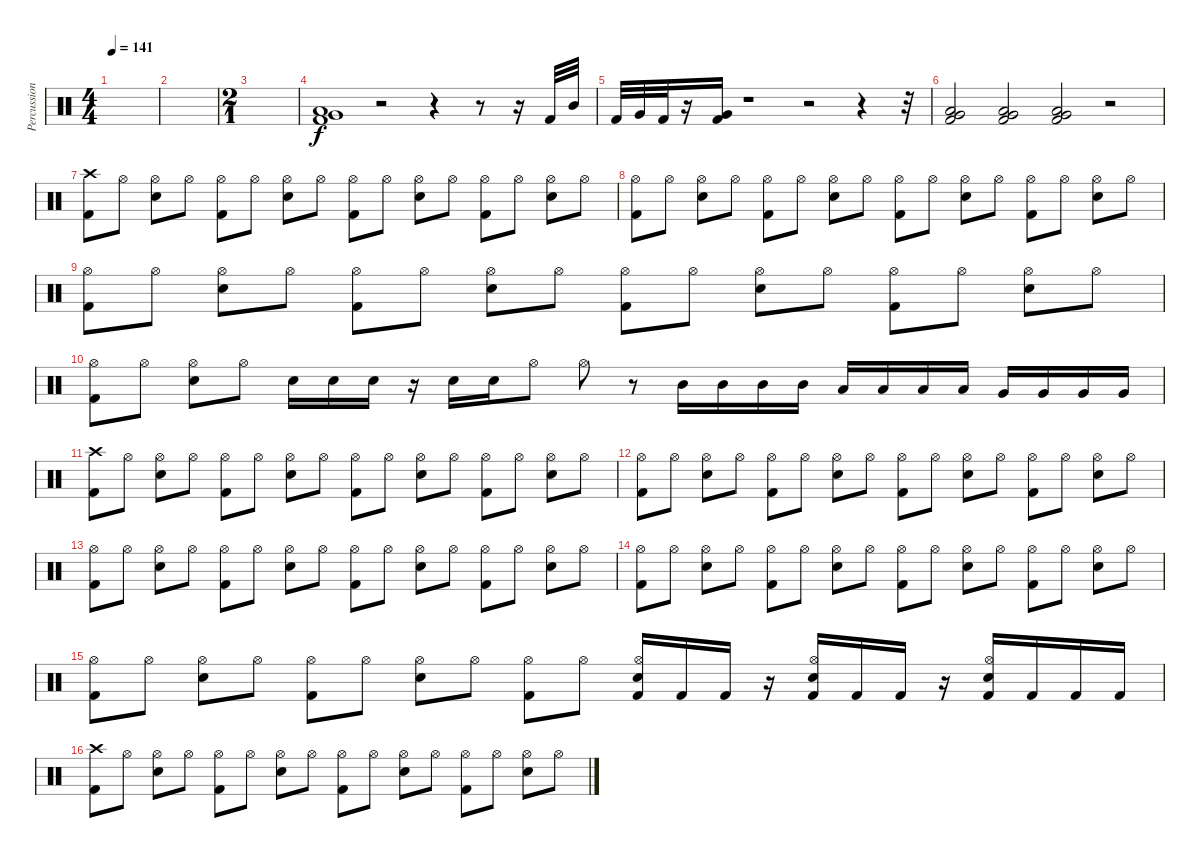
\track ("Percussion" "Percussion") {instrument percussion}
\staff {score}
\articulation defaults
\ts (4 4)
\tempo 141
\clef neutral
\ks c
|
|
\ts (2 1)
|
("Low Tom (hit)" "Very Low Tom (hit)" "Kick (hit) 2").1 r.2 r.4 r.8 r.16 "Kick (hit) 2".32 "Mid Tom (hit)".32 |
"Kick (hit) 2".32 "Very Low Tom (hit)".32 "Kick (hit) 2".32 r.16 ("Very Low Tom (hit)" "Kick (hit) 2").16 r.1 r.2 r.4 r.32 |
("Low Tom (hit)" "Very Low Tom (hit)" "Kick (hit) 2").2 ("Low Tom (hit)" "Very Low Tom (hit)" "Kick (hit) 2").2 ("Low Tom (hit)" "Very Low Tom (hit)" "Kick (hit) 2").2 r.2 |
("Crash high (hit)" "Kick (hit) 2").8 "Hi-Hat (open)".8 ("Hi-Hat (open)" "Snare (hit) 2").8 "Hi-Hat (open)".8 ("Hi-Hat (open)" "Kick (hit) 2").8 "Hi-Hat (open)".8 ("Hi-Hat (open)" "Snare (hit) 2").8 "Hi-Hat (open)".8 ("Hi-Hat (open)" "Kick (hit) 2").8 "Hi-Hat (open)".8 ("Hi-Hat (open)" "Snare (hit) 2").8 "Hi-Hat (open)".8 ("Hi-Hat (open)" "Kick (hit) 2").8 "Hi-Hat (open)".8 ("Hi-Hat (open)" "Snare (hit) 2").8 "Hi-Hat (open)".8 |
("Hi-Hat (open)" "Kick (hit) 2").8 "Hi-Hat (open)".8 ("Hi-Hat (open)" "Snare (hit) 2").8 "Hi-Hat (open)".8 ("Hi-Hat (open)" "Kick (hit) 2").8 "Hi-Hat (open)".8 ("Hi-Hat (open)" "Snare (hit) 2").8 "Hi-Hat (open)".8 ("Hi-Hat (open)" "Kick (hit) 2").8 "Hi-Hat (open)".8 ("Hi-Hat (open)" "Snare (hit) 2").8 "Hi-Hat (open)".8 ("Hi-Hat (open)" "Kick (hit) 2").8 "Hi-Hat (open)".8 ("Hi-Hat (open)" "Snare (hit) 2").8 "Hi-Hat (open)".8 |
("Hi-Hat (open)" "Kick (hit) 2").8 "Hi-Hat (open)".8 ("Hi-Hat (open)" "Snare (hit) 2").8 "Hi-Hat (open)".8 ("Hi-Hat (open)" "Kick (hit) 2").8 "Hi-Hat (open)".8 ("Hi-Hat (open)" "Snare (hit) 2").8 "Hi-Hat (open)".8 ("Hi-Hat (open)" "Kick (hit) 2").8 "Hi-Hat (open)".8 ("Hi-Hat (open)" "Snare (hit) 2").8 "Hi-Hat (open)".8 ("Hi-Hat (open)" "Kick (hit) 2").8 "Hi-Hat (open)".8 ("Hi-Hat (open)" "Snare (hit) 2").8 "Hi-Hat (open)".8 |
("Hi-Hat (open)" "Kick (hit) 2").8 "Hi-Hat (open)".8 ("Hi-Hat (open)" "Snare (hit) 2").8 "Hi-Hat (open)".8 "Snare (hit) 2".16 "Snare (hit) 2".16 "Snare (hit) 2".16 r.16 "Snare (hit) 2".16 "Snare (hit) 2".16 "Hi-Hat (open)".8 "Hi-Hat (open)".8 r.8 "Mid Tom (hit)".16 "Mid Tom (hit)".16 "Mid Tom (hit)".16 "Mid Tom (hit)".16 "Low Tom (hit)".16 "Low Tom (hit)".16 "Low Tom (hit)".16 "Low Tom (hit)".16 "Very Low Tom (hit)".16 "Very Low Tom (hit)".16 "Very Low Tom (hit)".16 "Very Low Tom (hit)".16 |
("Crash high (hit)" "Kick (hit) 2").8 "Hi-Hat (open)".8 ("Hi-Hat (open)" "Snare (hit) 2").8 "Hi-Hat (open)".8 ("Hi-Hat (open)" "Kick (hit) 2").8 "Hi-Hat (open)".8 ("Hi-Hat (open)" "Snare (hit) 2").8 "Hi-Hat (open)".8 ("Hi-Hat (open)" "Kick (hit) 2").8 "Hi-Hat (open)".8 ("Hi-Hat (open)" "Snare (hit) 2").8 "Hi-Hat (open)".8 ("Hi-Hat (open)" "Kick (hit) 2").8 "Hi-Hat (open)".8 ("Hi-Hat (open)" "Snare (hit) 2").8 "Hi-Hat (open)".8 |
("Hi-Hat (open)" "Kick (hit) 2").8 "Hi-Hat (open)".8 ("Hi-Hat (open)" "Snare (hit) 2").8 "Hi-Hat (open)".8 ("Hi-Hat (open)" "Kick (hit) 2").8 "Hi-Hat (open)".8 ("Hi-Hat (open)" "Snare (hit) 2").8 "Hi-Hat (open)".8 ("Hi-Hat (open)" "Kick (hit) 2").8 "Hi-Hat (open)".8 ("Hi-Hat (open)" "Snare (hit) 2").8 "Hi-Hat (open)".8 ("Hi-Hat (open)" "Kick (hit) 2").8 "Hi-Hat (open)".8 ("Hi-Hat (open)" "Snare (hit) 2").8 "Hi-Hat (open)".8 |
("Hi-Hat (open)" "Kick (hit) 2").8 "Hi-Hat (open)".8 ("Hi-Hat (open)" "Snare (hit) 2").8 "Hi-Hat (open)".8 ("Hi-Hat (open)" "Kick (hit) 2").8 "Hi-Hat (open)".8 ("Hi-Hat (open)" "Snare (hit) 2").8 "Hi-Hat (open)".8 ("Hi-Hat (open)" "Kick (hit) 2").8 "Hi-Hat (open)".8 ("Hi-Hat (open)" "Snare (hit) 2").8 "Hi-Hat (open)".8 ("Hi-Hat (open)" "Kick (hit) 2").8 "Hi-Hat (open)".8 ("Hi-Hat (open)" "Snare (hit) 2").8 "Hi-Hat (open)".8 |
("Hi-Hat (open)" "Kick (hit) 2").8 "Hi-Hat (open)".8 ("Hi-Hat (open)" "Snare (hit) 2").8 "Hi-Hat (open)".8 ("Hi-Hat (open)" "Kick (hit) 2").8 "Hi-Hat (open)".8 ("Hi-Hat (open)" "Snare (hit) 2").8 "Hi-Hat (open)".8 ("Hi-Hat (open)" "Kick (hit) 2").8 "Hi-Hat (open)".8 ("Hi-Hat (open)" "Snare (hit) 2").8 "Hi-Hat (open)".8 ("Hi-Hat (open)" "Kick (hit) 2").8 "Hi-Hat (open)".8 ("Hi-Hat (open)" "Snare (hit) 2").8 "Hi-Hat (open)".8 |
("Hi-Hat (open)" "Kick (hit) 2").8 "Hi-Hat (open)".8 ("Hi-Hat (open)" "Snare (hit) 2").8 "Hi-Hat (open)".8 ("Hi-Hat (open)" "Kick (hit) 2").8 "Hi-Hat (open)".8 ("Hi-Hat (open)" "Snare (hit) 2").8 "Hi-Hat (open)".8 ("Hi-Hat (open)" "Kick (hit) 2").8 "Hi-Hat (open)".8 ("Hi-Hat (open)" "Snare (hit) 2" "Kick (hit) 2").16 "Kick (hit) 2".16 "Kick (hit) 2".16 r.16 ("Hi-Hat (open)" "Snare (hit) 2" "Kick (hit) 2").16 "Kick (hit) 2".16 "Kick (hit) 2".16 r.16 ("Hi-Hat (open)" "Snare (hit) 2" "Kick (hit) 2").16 "Kick (hit) 2".16 "Kick (hit) 2".16 "Kick (hit) 2".16 |
("Crash high (hit)" "Kick (hit) 2").8 "Hi-Hat (open)".8 ("Hi-Hat (open)" "Snare (hit) 2").8 "Hi-Hat (open)".8 ("Hi-Hat (open)" "Kick (hit) 2").8 "Hi-Hat (open)".8 ("Hi-Hat (open)" "Snare (hit) 2").8 "Hi-Hat (open)".8 ("Hi-Hat (open)" "Kick (hit) 2").8 "Hi-Hat (open)".8 ("Hi-Hat (open)" "Snare (hit) 2").8 "Hi-Hat (open)".8 ("Hi-Hat (open)" "Kick (hit) 2").8 "Hi-Hat (open)".8 ("Hi-Hat (open)" "Snare (hit) 2").8 "Hi-Hat (open)".8
